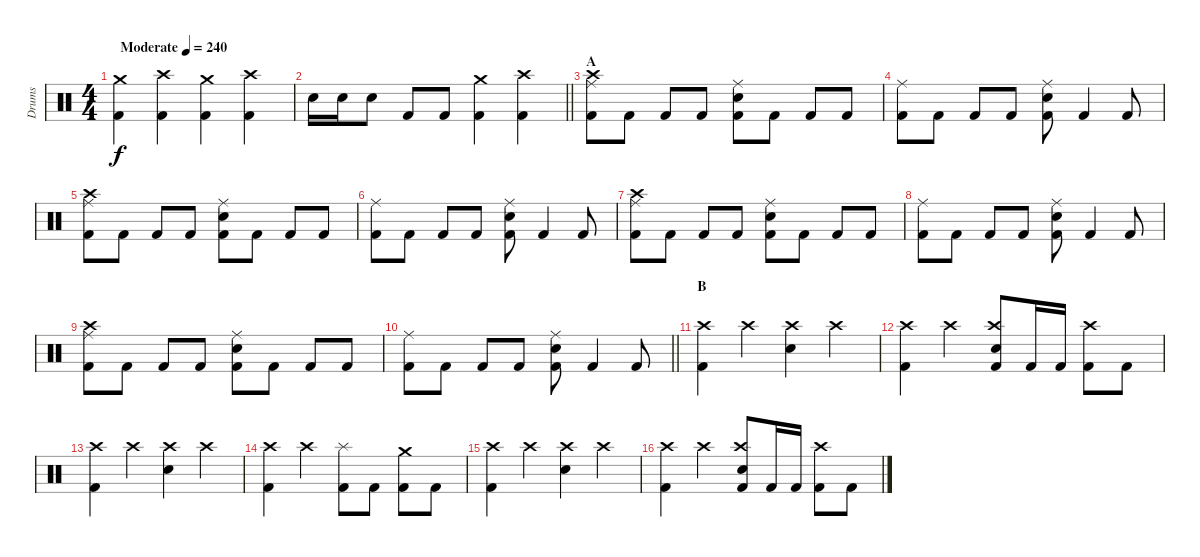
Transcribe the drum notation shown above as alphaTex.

\track ("Drums" "Drums") {instrument percussion}
\staff {score}
\articulation defaults
\ts (4 4)
\tempo (240 "Moderate")
\clef neutral
\ks c
("Kick (hit) 2" "Crash medium (hit)").4{dy f} ("Kick (hit) 2" "Crash high (hit)").4 ("Kick (hit) 2" "Crash medium (hit)").4 ("Kick (hit) 2" "Crash high (hit)").4 |
\barLineRight lightlight "Snare (hit) 2".16 "Snare (hit) 2".16 "Snare (hit) 2".8 "Kick (hit) 2".8 "Kick (hit) 2".8
("Kick (hit) 2" "Crash medium (hit)").4 ("Kick (hit) 2" "Crash high (hit)").4 |
\section ("" "A")
("Kick (hit) 2" "Crash high (hit)" "Ride (middle)").8 "Kick (hit) 2".8 "Kick (hit) 2".8 "Kick (hit) 2".8 ("Kick (hit) 2" "Snare (hit) 2" "Ride (middle)").8 "Kick (hit) 2".8 "Kick (hit) 2".8 "Kick (hit) 2".8 |
("Kick (hit) 2" "Ride (middle)").8 "Kick (hit) 2".8 "Kick (hit) 2".8 "Kick (hit) 2".8 ("Kick (hit) 2" "Snare (hit) 2" "Ride (middle)").8 "Kick (hit) 2".4 "Kick (hit) 2".8 |
("Kick (hit) 2" "Crash high (hit)" "Ride (middle)").8 "Kick (hit) 2".8 "Kick (hit) 2".8 "Kick (hit) 2".8 ("Kick (hit) 2" "Snare (hit) 2" "Ride (middle)").8 "Kick (hit) 2".8 "Kick (hit) 2".8 "Kick (hit) 2".8 |
("Kick (hit) 2" "Ride (middle)").8 "Kick (hit) 2".8 "Kick (hit) 2".8 "Kick (hit) 2".8 ("Kick (hit) 2" "Snare (hit) 2" "Ride (middle)").8 "Kick (hit) 2".4 "Kick (hit) 2".8 |
("Kick (hit) 2" "Crash high (hit)" "Ride (middle)").8 "Kick (hit) 2".8 "Kick (hit) 2".8 "Kick (hit) 2".8 ("Kick (hit) 2" "Snare (hit) 2" "Ride (middle)").8 "Kick (hit) 2".8 "Kick (hit) 2".8 "Kick (hit) 2".8 |
("Kick (hit) 2" "Ride (middle)").8 "Kick (hit) 2".8 "Kick (hit) 2".8 "Kick (hit) 2".8 ("Kick (hit) 2" "Snare (hit) 2" "Ride (middle)").8 "Kick (hit) 2".4 "Kick (hit) 2".8 |
("Kick (hit) 2" "Crash high (hit)" "Ride (middle)").8 "Kick (hit) 2".8 "Kick (hit) 2".8 "Kick (hit) 2".8 ("Kick (hit) 2" "Snare (hit) 2" "Ride (middle)").8 "Kick (hit) 2".8 "Kick (hit) 2".8 "Kick (hit) 2".8 |
\barLineRight lightlight
("Kick (hit) 2" "Ride (middle)").8 "Kick (hit) 2".8 "Kick (hit) 2".8 "Kick (hit) 2".8 ("Kick (hit) 2" "Snare (hit) 2" "Ride (middle)").8 "Kick (hit) 2".4 "Kick (hit) 2".8 |
\section ("" "B")
("Kick (hit) 2" "Crash high (hit)").4 "Crash high (hit)".4 ("Snare (hit) 2" "Crash high (hit)").4 "Crash high (hit)".4 |
("Kick (hit) 2" "Crash high (hit)").4 "Crash high (hit)".4 ("Kick (hit) 2" "Snare (hit) 2" "Crash high (hit)").8 "Kick (hit) 2".16 "Kick (hit) 2".16 ("Kick (hit) 2" "Crash high (hit)").8 "Kick (hit) 2".8 |
("Kick (hit) 2" "Crash high (hit)").4 "Crash high (hit)".4 ("Snare (hit) 2" "Crash high (hit)").4 "Crash high (hit)".4 |
("Kick (hit) 2" "Crash high (hit)").4 "Crash high (hit)".4 ("Kick (hit) 2" "Splash (hit)").8 "Kick (hit) 2".8 ("Kick (hit) 2" "Crash medium (hit)").8 "Kick (hit) 2".8 |
("Kick (hit) 2" "Crash high (hit)").4 "Crash high (hit)".4 ("Snare (hit) 2" "Crash high (hit)").4 "Crash high (hit)".4 |
("Kick (hit) 2" "Crash high (hit)").4 "Crash high (hit)".4 ("Kick (hit) 2" "Snare (hit) 2" "Crash high (hit)").8 "Kick (hit) 2".16 "Kick (hit) 2".16 ("Kick (hit) 2" "Crash high (hit)").8 "Kick (hit) 2".8
